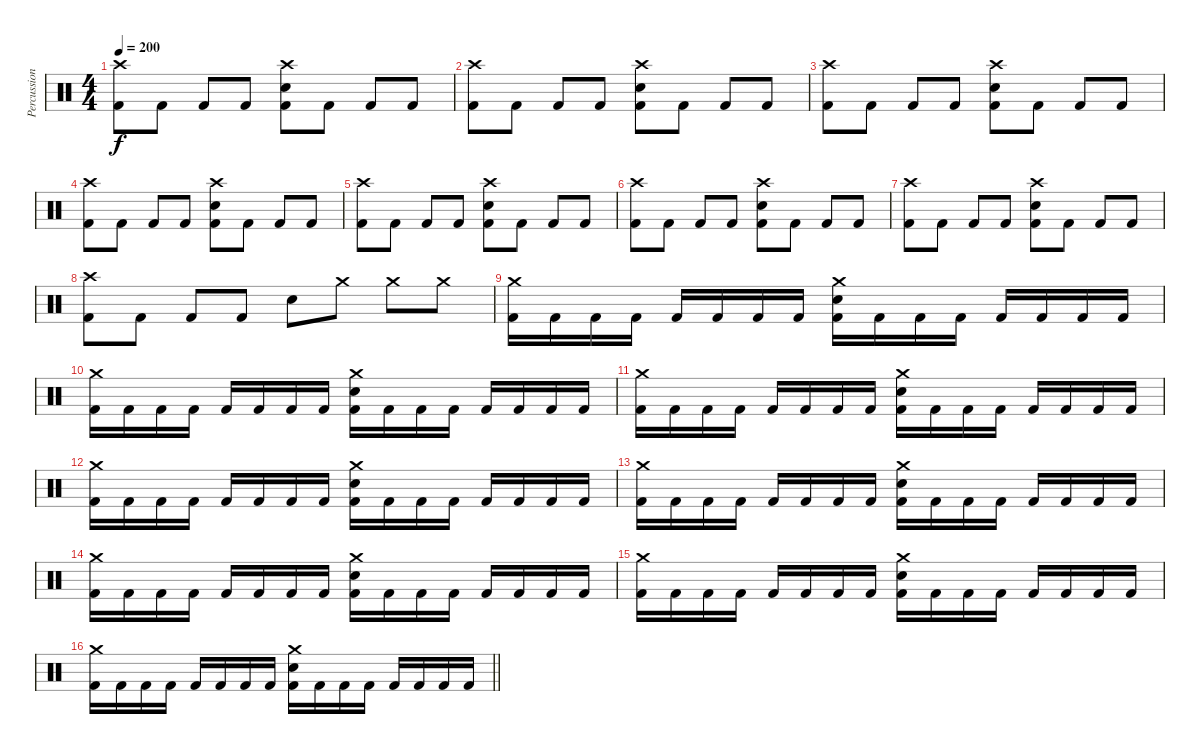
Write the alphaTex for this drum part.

\track ("Percussion" "Percussion") {instrument percussion}
\staff {score}
\articulation defaults
\ts (4 4)
\section ("" "")
\tempo 200
\clef neutral
\ks c
("Crash high (hit)" "Kick (hit) 2").8{dy f} "Kick (hit) 2".8 "Kick (hit) 2".8 "Kick (hit) 2".8 ("Crash high (hit)" "Electric Snare (hit)" "Kick (hit) 2").8 "Kick (hit) 2".8 "Kick (hit) 2".8 "Kick (hit) 2".8 |
("Crash high (hit)" "Kick (hit) 2").8 "Kick (hit) 2".8 "Kick (hit) 2".8 "Kick (hit) 2".8 ("Crash high (hit)" "Electric Snare (hit)" "Kick (hit) 2").8 "Kick (hit) 2".8 "Kick (hit) 2".8 "Kick (hit) 2".8 |
("Crash high (hit)" "Kick (hit) 2").8 "Kick (hit) 2".8 "Kick (hit) 2".8 "Kick (hit) 2".8 ("Crash high (hit)" "Electric Snare (hit)" "Kick (hit) 2").8 "Kick (hit) 2".8 "Kick (hit) 2".8 "Kick (hit) 2".8 |
("Crash high (hit)" "Kick (hit) 2").8 "Kick (hit) 2".8 "Kick (hit) 2".8 "Kick (hit) 2".8 ("Crash high (hit)" "Electric Snare (hit)" "Kick (hit) 2").8 "Kick (hit) 2".8 "Kick (hit) 2".8 "Kick (hit) 2".8 |
("Crash high (hit)" "Kick (hit) 2").8 "Kick (hit) 2".8 "Kick (hit) 2".8 "Kick (hit) 2".8 ("Crash high (hit)" "Electric Snare (hit)" "Kick (hit) 2").8 "Kick (hit) 2".8 "Kick (hit) 2".8 "Kick (hit) 2".8 |
("Crash high (hit)" "Kick (hit) 2").8 "Kick (hit) 2".8 "Kick (hit) 2".8 "Kick (hit) 2".8 ("Crash high (hit)" "Electric Snare (hit)" "Kick (hit) 2").8 "Kick (hit) 2".8 "Kick (hit) 2".8 "Kick (hit) 2".8 |
("Crash high (hit)" "Kick (hit) 2").8 "Kick (hit) 2".8 "Kick (hit) 2".8 "Kick (hit) 2".8 ("Crash high (hit)" "Electric Snare (hit)" "Kick (hit) 2").8 "Kick (hit) 2".8 "Kick (hit) 2".8 "Kick (hit) 2".8 |
("Crash high (hit)" "Kick (hit) 2").8 "Kick (hit) 2".8 "Kick (hit) 2".8 "Kick (hit) 2".8 "Electric Snare (hit)".8 "Crash medium (hit)".8 "Crash medium (hit)".8 "Crash medium (hit)".8 |
("Crash medium (hit)" "Kick (hit) 2").16 "Kick (hit) 2".16 "Kick (hit) 2".16 "Kick (hit) 2".16 "Kick (hit) 2".16 "Kick (hit) 2".16 "Kick (hit) 2".16 "Kick (hit) 2".16 ("Crash medium (hit)" "Electric Snare (hit)" "Kick (hit) 2").16 "Kick (hit) 2".16 "Kick (hit) 2".16 "Kick (hit) 2".16 "Kick (hit) 2".16 "Kick (hit) 2".16 "Kick (hit) 2".16 "Kick (hit) 2".16 |
("Crash medium (hit)" "Kick (hit) 2").16 "Kick (hit) 2".16 "Kick (hit) 2".16 "Kick (hit) 2".16 "Kick (hit) 2".16 "Kick (hit) 2".16 "Kick (hit) 2".16 "Kick (hit) 2".16 ("Crash medium (hit)" "Electric Snare (hit)" "Kick (hit) 2").16 "Kick (hit) 2".16 "Kick (hit) 2".16 "Kick (hit) 2".16 "Kick (hit) 2".16 "Kick (hit) 2".16 "Kick (hit) 2".16 "Kick (hit) 2".16 |
("Crash medium (hit)" "Kick (hit) 2").16 "Kick (hit) 2".16 "Kick (hit) 2".16 "Kick (hit) 2".16 "Kick (hit) 2".16 "Kick (hit) 2".16 "Kick (hit) 2".16 "Kick (hit) 2".16 ("Crash medium (hit)" "Electric Snare (hit)" "Kick (hit) 2").16 "Kick (hit) 2".16 "Kick (hit) 2".16 "Kick (hit) 2".16 "Kick (hit) 2".16 "Kick (hit) 2".16 "Kick (hit) 2".16 "Kick (hit) 2".16 |
("Crash medium (hit)" "Kick (hit) 2").16 "Kick (hit) 2".16 "Kick (hit) 2".16 "Kick (hit) 2".16 "Kick (hit) 2".16 "Kick (hit) 2".16 "Kick (hit) 2".16 "Kick (hit) 2".16 ("Crash medium (hit)" "Electric Snare (hit)" "Kick (hit) 2").16 "Kick (hit) 2".16 "Kick (hit) 2".16 "Kick (hit) 2".16 "Kick (hit) 2".16 "Kick (hit) 2".16 "Kick (hit) 2".16 "Kick (hit) 2".16 |
("Crash medium (hit)" "Kick (hit) 2").16 "Kick (hit) 2".16 "Kick (hit) 2".16 "Kick (hit) 2".16 "Kick (hit) 2".16 "Kick (hit) 2".16 "Kick (hit) 2".16 "Kick (hit) 2".16 ("Crash medium (hit)" "Electric Snare (hit)" "Kick (hit) 2").16 "Kick (hit) 2".16 "Kick (hit) 2".16 "Kick (hit) 2".16 "Kick (hit) 2".16 "Kick (hit) 2".16 "Kick (hit) 2".16 "Kick (hit) 2".16 |
("Crash medium (hit)" "Kick (hit) 2").16 "Kick (hit) 2".16 "Kick (hit) 2".16 "Kick (hit) 2".16 "Kick (hit) 2".16 "Kick (hit) 2".16 "Kick (hit) 2".16 "Kick (hit) 2".16 ("Crash medium (hit)" "Electric Snare (hit)" "Kick (hit) 2").16 "Kick (hit) 2".16 "Kick (hit) 2".16 "Kick (hit) 2".16 "Kick (hit) 2".16 "Kick (hit) 2".16 "Kick (hit) 2".16 "Kick (hit) 2".16 |
("Crash medium (hit)" "Kick (hit) 2").16 "Kick (hit) 2".16 "Kick (hit) 2".16 "Kick (hit) 2".16 "Kick (hit) 2".16 "Kick (hit) 2".16 "Kick (hit) 2".16 "Kick (hit) 2".16 ("Crash medium (hit)" "Electric Snare (hit)" "Kick (hit) 2").16 "Kick (hit) 2".16 "Kick (hit) 2".16 "Kick (hit) 2".16 "Kick (hit) 2".16 "Kick (hit) 2".16 "Kick (hit) 2".16 "Kick (hit) 2".16 |
\barLineRight lightlight
("Crash medium (hit)" "Kick (hit) 2").16 "Kick (hit) 2".16 "Kick (hit) 2".16 "Kick (hit) 2".16 "Kick (hit) 2".16 "Kick (hit) 2".16 "Kick (hit) 2".16 "Kick (hit) 2".16 ("Crash medium (hit)" "Electric Snare (hit)" "Kick (hit) 2").16 "Kick (hit) 2".16 "Kick (hit) 2".16 "Kick (hit) 2".16 "Kick (hit) 2".16 "Kick (hit) 2".16 "Kick (hit) 2".16 "Kick (hit) 2".16
